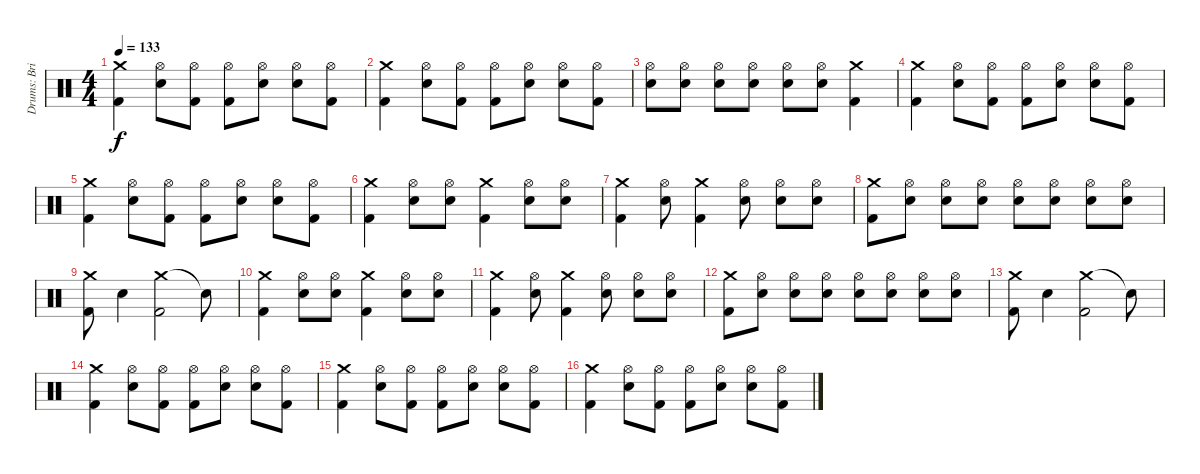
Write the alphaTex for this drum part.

\track ("Drums: Brian Mantila" "Drums: Bri") {instrument percussion}
\staff {score}
\articulation defaults
\ts (4 4)
\tempo 133
\clef neutral
\ks c
("Crash medium (hit)" "Kick (hit) 2").4{dy f} ("Electric Snare (hit)" "Hi-Hat (open)").8 ("Kick (hit) 2" "Hi-Hat (open)").8 ("Kick (hit) 2" "Hi-Hat (open)").8 ("Electric Snare (hit)" "Hi-Hat (open)").8 ("Electric Snare (hit)" "Hi-Hat (open)").8 ("Kick (hit) 2" "Hi-Hat (open)").8 |
("Crash medium (hit)" "Kick (hit) 2").4 ("Electric Snare (hit)" "Hi-Hat (open)").8 ("Kick (hit) 2" "Hi-Hat (open)").8 ("Kick (hit) 2" "Hi-Hat (open)").8 ("Electric Snare (hit)" "Hi-Hat (open)").8 ("Electric Snare (hit)" "Hi-Hat (open)").8 ("Kick (hit) 2" "Hi-Hat (open)").8 |
("Electric Snare (hit)" "Hi-Hat (open)").8 ("Electric Snare (hit)" "Hi-Hat (open)").8 ("Electric Snare (hit)" "Hi-Hat (open)").8 ("Electric Snare (hit)" "Hi-Hat (open)").8 ("Electric Snare (hit)" "Hi-Hat (open)").8 ("Electric Snare (hit)" "Hi-Hat (open)").8 ("Crash medium (hit)" "Kick (hit) 2").4 |
("Crash medium (hit)" "Kick (hit) 2").4 ("Electric Snare (hit)" "Hi-Hat (open)").8 ("Kick (hit) 2" "Hi-Hat (open)").8 ("Kick (hit) 2" "Hi-Hat (open)").8 ("Electric Snare (hit)" "Hi-Hat (open)").8 ("Electric Snare (hit)" "Hi-Hat (open)").8 ("Kick (hit) 2" "Hi-Hat (open)").8 |
("Crash medium (hit)" "Kick (hit) 2").4 ("Electric Snare (hit)" "Hi-Hat (open)").8 ("Kick (hit) 2" "Hi-Hat (open)").8 ("Kick (hit) 2" "Hi-Hat (open)").8 ("Electric Snare (hit)" "Hi-Hat (open)").8 ("Electric Snare (hit)" "Hi-Hat (open)").8 ("Kick (hit) 2" "Hi-Hat (open)").8 |
("Crash medium (hit)" "Kick (hit) 2").4 ("Electric Snare (hit)" "Hi-Hat (open)").8 ("Electric Snare (hit)" "Hi-Hat (open)").8 ("Crash medium (hit)" "Kick (hit) 2").4 ("Electric Snare (hit)" "Hi-Hat (open)").8 ("Electric Snare (hit)" "Hi-Hat (open)").8 |
("Crash medium (hit)" "Kick (hit) 2").4 ("Electric Snare (hit)" "Hi-Hat (open)").8 ("Crash medium (hit)" "Kick (hit) 2").4 ("Electric Snare (hit)" "Hi-Hat (open)").8 ("Electric Snare (hit)" "Hi-Hat (open)").8 ("Electric Snare (hit)" "Hi-Hat (open)").8 |
("Crash medium (hit)" "Kick (hit) 2").8 ("Electric Snare (hit)" "Hi-Hat (open)").8 ("Electric Snare (hit)" "Hi-Hat (open)").8 ("Electric Snare (hit)" "Hi-Hat (open)").8 ("Electric Snare (hit)" "Hi-Hat (open)").8 ("Electric Snare (hit)" "Hi-Hat (open)").8 ("Electric Snare (hit)" "Hi-Hat (open)").8 ("Electric Snare (hit)" "Hi-Hat (open)").8 |
("Crash medium (hit)" "Kick (hit) 2").8 "Electric Snare (hit)".4 ("Crash medium (hit)" "Kick (hit) 2").2 "Snare (hit)"{t}.8 |
("Crash medium (hit)" "Kick (hit) 2").4 ("Electric Snare (hit)" "Hi-Hat (open)").8 ("Electric Snare (hit)" "Hi-Hat (open)").8 ("Crash medium (hit)" "Kick (hit) 2").4 ("Electric Snare (hit)" "Hi-Hat (open)").8 ("Electric Snare (hit)" "Hi-Hat (open)").8 |
("Crash medium (hit)" "Kick (hit) 2").4 ("Electric Snare (hit)" "Hi-Hat (open)").8 ("Crash medium (hit)" "Kick (hit) 2").4 ("Electric Snare (hit)" "Hi-Hat (open)").8 ("Electric Snare (hit)" "Hi-Hat (open)").8 ("Electric Snare (hit)" "Hi-Hat (open)").8 |
("Crash medium (hit)" "Kick (hit) 2").8 ("Electric Snare (hit)" "Hi-Hat (open)").8 ("Electric Snare (hit)" "Hi-Hat (open)").8 ("Electric Snare (hit)" "Hi-Hat (open)").8 ("Electric Snare (hit)" "Hi-Hat (open)").8 ("Electric Snare (hit)" "Hi-Hat (open)").8 ("Electric Snare (hit)" "Hi-Hat (open)").8 ("Electric Snare (hit)" "Hi-Hat (open)").8 |
("Crash medium (hit)" "Kick (hit) 2").8 "Electric Snare (hit)".4 ("Crash medium (hit)" "Kick (hit) 2").2 "Snare (hit)"{t}.8 |
("Crash medium (hit)" "Kick (hit) 2").4 ("Electric Snare (hit)" "Hi-Hat (open)").8 ("Kick (hit) 2" "Hi-Hat (open)").8 ("Kick (hit) 2" "Hi-Hat (open)").8 ("Electric Snare (hit)" "Hi-Hat (open)").8 ("Electric Snare (hit)" "Hi-Hat (open)").8 ("Kick (hit) 2" "Hi-Hat (open)").8 |
("Crash medium (hit)" "Kick (hit) 2").4 ("Electric Snare (hit)" "Hi-Hat (open)").8 ("Kick (hit) 2" "Hi-Hat (open)").8 ("Kick (hit) 2" "Hi-Hat (open)").8 ("Electric Snare (hit)" "Hi-Hat (open)").8 ("Electric Snare (hit)" "Hi-Hat (open)").8 ("Kick (hit) 2" "Hi-Hat (open)").8 |
("Crash medium (hit)" "Kick (hit) 2").4 ("Electric Snare (hit)" "Hi-Hat (open)").8 ("Kick (hit) 2" "Hi-Hat (open)").8 ("Kick (hit) 2" "Hi-Hat (open)").8 ("Electric Snare (hit)" "Hi-Hat (open)").8 ("Electric Snare (hit)" "Hi-Hat (open)").8 ("Kick (hit) 2" "Hi-Hat (open)").8
